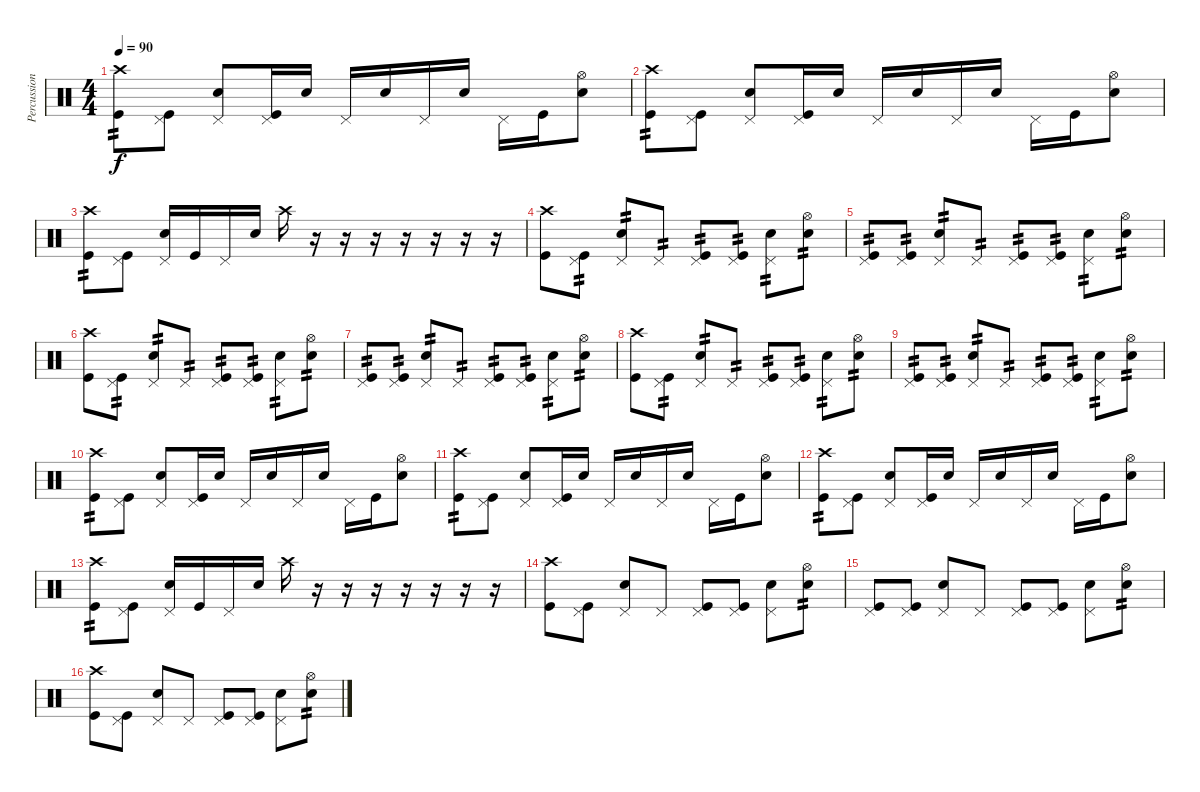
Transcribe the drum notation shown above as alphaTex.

\track ("Percussions" "Percussion") {instrument percussion}
\staff {score}
\articulation defaults
\ts (4 4)
\tempo 90
\clef neutral
\ks c
("Crash high (hit)" "Kick (hit)").8{tp 2 dy f} ("Pedal Hi-Hat (hit)" "Kick (hit)").8 ("Pedal Hi-Hat (hit)" "Snare (hit) 2").8 ("Pedal Hi-Hat (hit)" "Kick (hit)").16 "Snare (hit) 2".16 "Pedal Hi-Hat (hit)".16 "Snare (hit) 2".16 "Pedal Hi-Hat (hit)".16 "Snare (hit) 2".16 "Pedal Hi-Hat (hit)".16 "Kick (hit)".16 ("Hi-Hat (open)" "Snare (hit) 2").8 |
("Crash high (hit)" "Kick (hit)").8{tp 2} ("Pedal Hi-Hat (hit)" "Kick (hit)").8 ("Pedal Hi-Hat (hit)" "Snare (hit) 2").8 ("Pedal Hi-Hat (hit)" "Kick (hit)").16 "Snare (hit) 2".16 "Pedal Hi-Hat (hit)".16 "Snare (hit) 2".16 "Pedal Hi-Hat (hit)".16 "Snare (hit) 2".16 "Pedal Hi-Hat (hit)".16 "Kick (hit)".16 ("Hi-Hat (open)" "Snare (hit) 2").8 |
("Crash high (hit)" "Kick (hit)").8{tp 2} ("Pedal Hi-Hat (hit)" "Kick (hit)").8 ("Pedal Hi-Hat (hit)" "Snare (hit) 2").16 "Kick (hit)".16 "Pedal Hi-Hat (hit)".16 "Snare (hit) 2".16 "Crash high (hit)".16 r.16 r.16 r.16 r.16 r.16 r.16 r.16 |
("Crash high (hit)" "Kick (hit)").8 ("Pedal Hi-Hat (hit)" "Kick (hit)").8{tp 2} ("Pedal Hi-Hat (hit)" "Snare (hit) 2").8{tp 2} "Pedal Hi-Hat (hit)".8{tp 2} ("Pedal Hi-Hat (hit)" "Kick (hit)").8{tp 2} ("Pedal Hi-Hat (hit)" "Kick (hit)").8{tp 2} ("Pedal Hi-Hat (hit)" "Snare (hit) 2").8{tp 2} ("Hi-Hat (open)" "Snare (hit) 2").8{tp 2} |
("Pedal Hi-Hat (hit)" "Kick (hit)").8{tp 2} ("Pedal Hi-Hat (hit)" "Kick (hit)").8{tp 2} ("Pedal Hi-Hat (hit)" "Snare (hit) 2").8{tp 2} "Pedal Hi-Hat (hit)".8{tp 2} ("Pedal Hi-Hat (hit)" "Kick (hit)").8{tp 2} ("Pedal Hi-Hat (hit)" "Kick (hit)").8{tp 2} ("Pedal Hi-Hat (hit)" "Snare (hit) 2").8{tp 2} ("Hi-Hat (open)" "Snare (hit) 2").8{tp 2} |
("Crash high (hit)" "Kick (hit)").8 ("Pedal Hi-Hat (hit)" "Kick (hit)").8{tp 2} ("Pedal Hi-Hat (hit)" "Snare (hit) 2").8{tp 2} "Pedal Hi-Hat (hit)".8{tp 2} ("Pedal Hi-Hat (hit)" "Kick (hit)").8{tp 2} ("Pedal Hi-Hat (hit)" "Kick (hit)").8{tp 2} ("Pedal Hi-Hat (hit)" "Snare (hit) 2").8{tp 2} ("Hi-Hat (open)" "Snare (hit) 2").8{tp 2} |
("Pedal Hi-Hat (hit)" "Kick (hit)").8{tp 2} ("Pedal Hi-Hat (hit)" "Kick (hit)").8{tp 2} ("Pedal Hi-Hat (hit)" "Snare (hit) 2").8{tp 2} "Pedal Hi-Hat (hit)".8{tp 2} ("Pedal Hi-Hat (hit)" "Kick (hit)").8{tp 2} ("Pedal Hi-Hat (hit)" "Kick (hit)").8{tp 2} ("Pedal Hi-Hat (hit)" "Snare (hit) 2").8{tp 2} ("Hi-Hat (open)" "Snare (hit) 2").8{tp 2} |
("Crash high (hit)" "Kick (hit)").8 ("Pedal Hi-Hat (hit)" "Kick (hit)").8{tp 2} ("Pedal Hi-Hat (hit)" "Snare (hit) 2").8{tp 2} "Pedal Hi-Hat (hit)".8{tp 2} ("Pedal Hi-Hat (hit)" "Kick (hit)").8{tp 2} ("Pedal Hi-Hat (hit)" "Kick (hit)").8{tp 2} ("Pedal Hi-Hat (hit)" "Snare (hit) 2").8{tp 2} ("Hi-Hat (open)" "Snare (hit) 2").8{tp 2} |
("Pedal Hi-Hat (hit)" "Kick (hit)").8{tp 2} ("Pedal Hi-Hat (hit)" "Kick (hit)").8{tp 2} ("Pedal Hi-Hat (hit)" "Snare (hit) 2").8{tp 2} "Pedal Hi-Hat (hit)".8{tp 2} ("Pedal Hi-Hat (hit)" "Kick (hit)").8{tp 2} ("Pedal Hi-Hat (hit)" "Kick (hit)").8{tp 2} ("Pedal Hi-Hat (hit)" "Snare (hit) 2").8{tp 2} ("Hi-Hat (open)" "Snare (hit) 2").8{tp 2} |
("Crash high (hit)" "Kick (hit)").8{tp 2} ("Pedal Hi-Hat (hit)" "Kick (hit)").8 ("Pedal Hi-Hat (hit)" "Snare (hit) 2").8 ("Pedal Hi-Hat (hit)" "Kick (hit)").16 "Snare (hit) 2".16 "Pedal Hi-Hat (hit)".16 "Snare (hit) 2".16 "Pedal Hi-Hat (hit)".16 "Snare (hit) 2".16 "Pedal Hi-Hat (hit)".16 "Kick (hit)".16 ("Hi-Hat (open)" "Snare (hit) 2").8 |
("Crash high (hit)" "Kick (hit)").8{tp 2} ("Pedal Hi-Hat (hit)" "Kick (hit)").8 ("Pedal Hi-Hat (hit)" "Snare (hit) 2").8 ("Pedal Hi-Hat (hit)" "Kick (hit)").16 "Snare (hit) 2".16 "Pedal Hi-Hat (hit)".16 "Snare (hit) 2".16 "Pedal Hi-Hat (hit)".16 "Snare (hit) 2".16 "Pedal Hi-Hat (hit)".16 "Kick (hit)".16 ("Hi-Hat (open)" "Snare (hit) 2").8 |
("Crash high (hit)" "Kick (hit)").8{tp 2} ("Pedal Hi-Hat (hit)" "Kick (hit)").8 ("Pedal Hi-Hat (hit)" "Snare (hit) 2").8 ("Pedal Hi-Hat (hit)" "Kick (hit)").16 "Snare (hit) 2".16 "Pedal Hi-Hat (hit)".16 "Snare (hit) 2".16 "Pedal Hi-Hat (hit)".16 "Snare (hit) 2".16 "Pedal Hi-Hat (hit)".16 "Kick (hit)".16 ("Hi-Hat (open)" "Snare (hit) 2").8 |
("Crash high (hit)" "Kick (hit)").8{tp 2} ("Pedal Hi-Hat (hit)" "Kick (hit)").8 ("Pedal Hi-Hat (hit)" "Snare (hit) 2").16 "Kick (hit)".16 "Pedal Hi-Hat (hit)".16 "Snare (hit) 2".16 "Crash high (hit)".16 r.16 r.16 r.16 r.16 r.16 r.16 r.16 |
("Crash high (hit)" "Kick (hit)").8 ("Pedal Hi-Hat (hit)" "Kick (hit)").8 ("Pedal Hi-Hat (hit)" "Snare (hit) 2").8 "Pedal Hi-Hat (hit)".8 ("Pedal Hi-Hat (hit)" "Kick (hit)").8 ("Pedal Hi-Hat (hit)" "Kick (hit)").8 ("Pedal Hi-Hat (hit)" "Snare (hit) 2").8 ("Hi-Hat (open)" "Snare (hit) 2").8{tp 2} |
("Pedal Hi-Hat (hit)" "Kick (hit)").8 ("Pedal Hi-Hat (hit)" "Kick (hit)").8 ("Pedal Hi-Hat (hit)" "Snare (hit) 2").8 "Pedal Hi-Hat (hit)".8 ("Pedal Hi-Hat (hit)" "Kick (hit)").8 ("Pedal Hi-Hat (hit)" "Kick (hit)").8 ("Pedal Hi-Hat (hit)" "Snare (hit) 2").8 ("Hi-Hat (open)" "Snare (hit) 2").8{tp 2} |
("Crash high (hit)" "Kick (hit)").8 ("Pedal Hi-Hat (hit)" "Kick (hit)").8 ("Pedal Hi-Hat (hit)" "Snare (hit) 2").8 "Pedal Hi-Hat (hit)".8 ("Pedal Hi-Hat (hit)" "Kick (hit)").8 ("Pedal Hi-Hat (hit)" "Kick (hit)").8 ("Pedal Hi-Hat (hit)" "Snare (hit) 2").8 ("Hi-Hat (open)" "Snare (hit) 2").8{tp 2}
